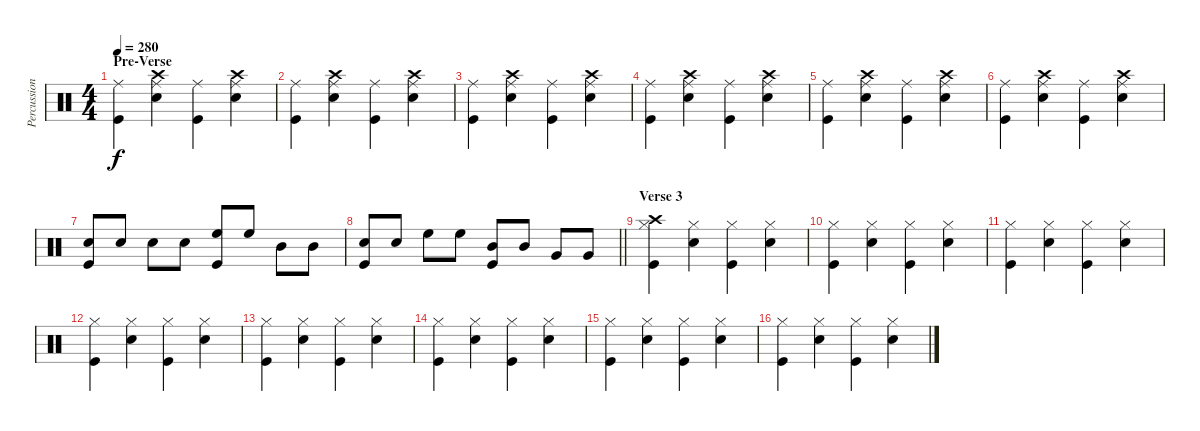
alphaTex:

\track ("Percussion" "Percussion") {instrument percussion}
\staff {score}
\articulation defaults
\ts (4 4)
\section ("" "Pre-Verse")
\tempo 280
\clef neutral
\ks c
("Ride (middle)" "Kick (hit)").4{dy f} ("Crash high (hit)" "Ride (middle)" "Snare (hit) 2").4 ("Ride (middle)" "Kick (hit)").4 ("Crash high (hit)" "Ride (middle)" "Snare (hit) 2").4 |
("Ride (middle)" "Kick (hit)").4 ("Crash high (hit)" "Ride (middle)" "Snare (hit) 2").4 ("Ride (middle)" "Kick (hit)").4 ("Crash high (hit)" "Ride (middle)" "Snare (hit) 2").4 |
("Ride (middle)" "Kick (hit)").4 ("Crash high (hit)" "Ride (middle)" "Snare (hit) 2").4 ("Ride (middle)" "Kick (hit)").4 ("Crash high (hit)" "Ride (middle)" "Snare (hit) 2").4 |
("Ride (middle)" "Kick (hit)").4 ("Crash high (hit)" "Ride (middle)" "Snare (hit) 2").4 ("Ride (middle)" "Kick (hit)").4 ("Crash high (hit)" "Ride (middle)" "Snare (hit) 2").4 |
("Ride (middle)" "Kick (hit)").4 ("Crash high (hit)" "Ride (middle)" "Snare (hit) 2").4 ("Ride (middle)" "Kick (hit)").4 ("Crash high (hit)" "Ride (middle)" "Snare (hit) 2").4 |
("Ride (middle)" "Kick (hit)").4 ("Crash high (hit)" "Ride (middle)" "Snare (hit) 2").4 ("Ride (middle)" "Kick (hit)").4 ("Crash high (hit)" "Ride (middle)" "Snare (hit) 2").4 |
("Snare (hit) 2" "Kick (hit)").8 "Snare (hit) 2".8 "Snare (hit) 2".8 "Snare (hit) 2".8 ("High Floor Tom (hit)" "Kick (hit)").8 "High Floor Tom (hit)".8 "Mid Tom (hit)".8 "Mid Tom (hit)".8 |
\barLineRight lightlight
("Snare (hit) 2" "Kick (hit)").8 "Snare (hit) 2".8 "High Floor Tom (hit)".8 "High Floor Tom (hit)".8 ("Mid Tom (hit)" "Kick (hit)").8 "Mid Tom (hit)".8 "Very Low Tom (hit)".8 "Very Low Tom (hit)".8 |
\section ("" "Verse 3")
("Crash high (hit)" "Hi-Hat (closed)" "Kick (hit)").4 ("Hi-Hat (closed)" "Snare (hit) 2").4 ("Hi-Hat (closed)" "Kick (hit)").4 ("Hi-Hat (closed)" "Snare (hit) 2").4 |
("Hi-Hat (closed)" "Kick (hit)").4 ("Hi-Hat (closed)" "Snare (hit) 2").4 ("Hi-Hat (closed)" "Kick (hit)").4 ("Hi-Hat (closed)" "Snare (hit) 2").4 |
("Hi-Hat (closed)" "Kick (hit)").4 ("Hi-Hat (closed)" "Snare (hit) 2").4 ("Hi-Hat (closed)" "Kick (hit)").4 ("Hi-Hat (closed)" "Snare (hit) 2").4 |
("Hi-Hat (closed)" "Kick (hit)").4 ("Hi-Hat (closed)" "Snare (hit) 2").4 ("Hi-Hat (closed)" "Kick (hit)").4 ("Hi-Hat (closed)" "Snare (hit) 2").4 |
("Hi-Hat (closed)" "Kick (hit)").4 ("Hi-Hat (closed)" "Snare (hit) 2").4 ("Hi-Hat (closed)" "Kick (hit)").4 ("Hi-Hat (closed)" "Snare (hit) 2").4 |
("Hi-Hat (closed)" "Kick (hit)").4 ("Hi-Hat (closed)" "Snare (hit) 2").4 ("Hi-Hat (closed)" "Kick (hit)").4 ("Hi-Hat (closed)" "Snare (hit) 2").4 |
("Hi-Hat (closed)" "Kick (hit)").4 ("Hi-Hat (closed)" "Snare (hit) 2").4 ("Hi-Hat (closed)" "Kick (hit)").4 ("Hi-Hat (closed)" "Snare (hit) 2").4 |
("Hi-Hat (closed)" "Kick (hit)").4 ("Hi-Hat (closed)" "Snare (hit) 2").4 ("Hi-Hat (closed)" "Kick (hit)").4 ("Hi-Hat (closed)" "Snare (hit) 2").4
